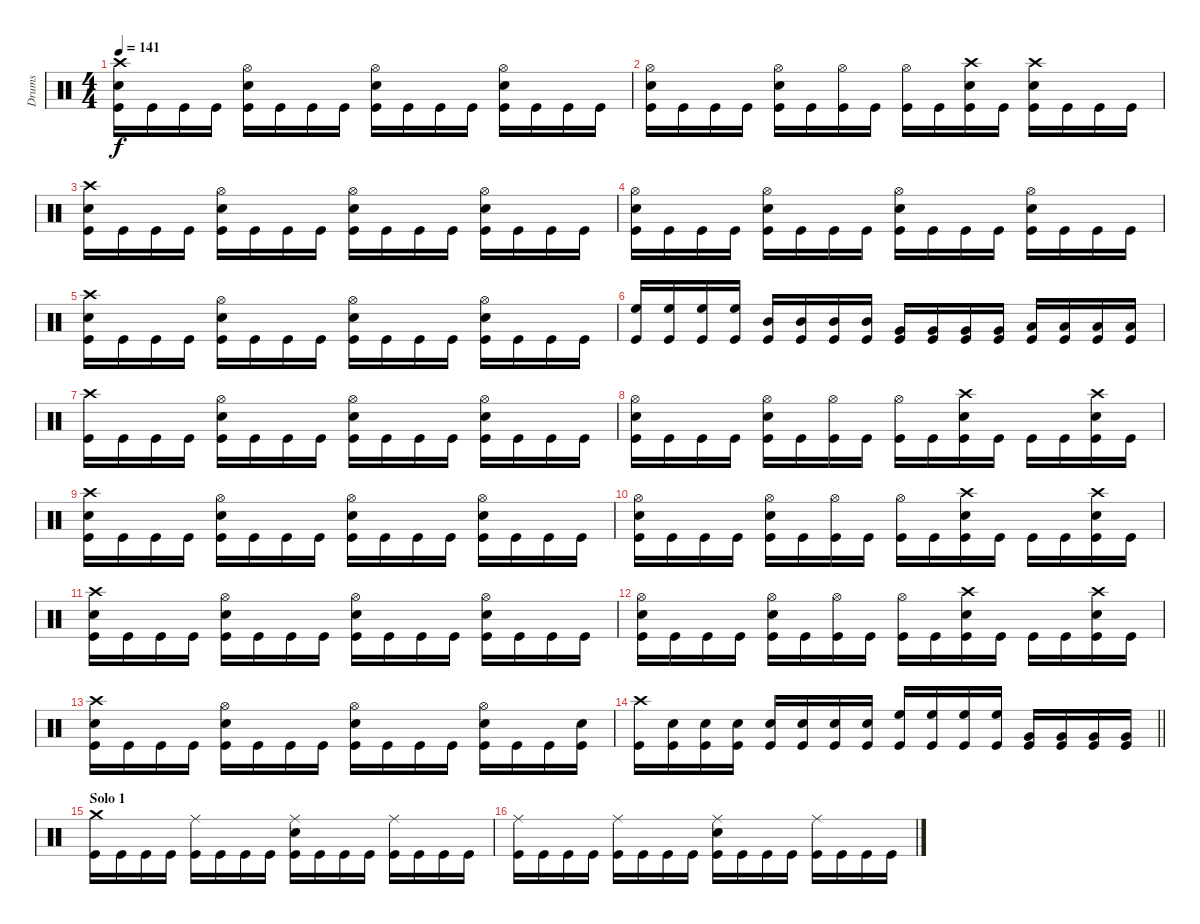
\track ("Drums" "Drums") {instrument percussion}
\staff {score}
\articulation defaults
\ts (4 4)
\tempo 141
\clef neutral
\ks c
("Kick (hit)" "Snare (hit) 2" "Crash high (hit)").16{dy f} "Kick (hit)".16 "Kick (hit)".16 "Kick (hit)".16 ("Kick (hit)" "Snare (hit) 2" "Hi-Hat (open)").16 "Kick (hit)".16 "Kick (hit)".16 "Kick (hit)".16 ("Kick (hit)" "Snare (hit) 2" "Hi-Hat (open)").16 "Kick (hit)".16 "Kick (hit)".16 "Kick (hit)".16 ("Kick (hit)" "Snare (hit) 2" "Hi-Hat (open)").16 "Kick (hit)".16 "Kick (hit)".16 "Kick (hit)".16 |
("Kick (hit)" "Snare (hit) 2" "Hi-Hat (open)").16 "Kick (hit)".16 "Kick (hit)".16 "Kick (hit)".16 ("Kick (hit)" "Snare (hit) 2" "Hi-Hat (open)").16 "Kick (hit)".16 ("Kick (hit)" "Hi-Hat (open)").16 "Kick (hit)".16 ("Kick (hit)" "Hi-Hat (open)").16 "Kick (hit)".16 ("Kick (hit)" "Snare (hit) 2" "Crash high (hit)").16 "Kick (hit)".16 ("Kick (hit)" "Snare (hit) 2" "Crash high (hit)").16 "Kick (hit)".16 "Kick (hit)".16 "Kick (hit)".16 |
("Kick (hit)" "Snare (hit) 2" "Crash high (hit)").16 "Kick (hit)".16 "Kick (hit)".16 "Kick (hit)".16 ("Kick (hit)" "Snare (hit) 2" "Hi-Hat (open)").16 "Kick (hit)".16 "Kick (hit)".16 "Kick (hit)".16 ("Kick (hit)" "Snare (hit) 2" "Hi-Hat (open)").16 "Kick (hit)".16 "Kick (hit)".16 "Kick (hit)".16 ("Kick (hit)" "Snare (hit) 2" "Hi-Hat (open)").16 "Kick (hit)".16 "Kick (hit)".16 "Kick (hit)".16 |
("Kick (hit)" "Snare (hit) 2" "Hi-Hat (open)").16 "Kick (hit)".16 "Kick (hit)".16 "Kick (hit)".16 ("Kick (hit)" "Snare (hit) 2" "Hi-Hat (open)").16 "Kick (hit)".16 "Kick (hit)".16 "Kick (hit)".16 ("Kick (hit)" "Snare (hit) 2" "Hi-Hat (open)").16 "Kick (hit)".16 "Kick (hit)".16 "Kick (hit)".16 ("Kick (hit)" "Snare (hit) 2" "Hi-Hat (open)").16 "Kick (hit)".16 "Kick (hit)".16 "Kick (hit)".16 |
("Kick (hit)" "Snare (hit) 2" "Crash high (hit)").16 "Kick (hit)".16 "Kick (hit)".16 "Kick (hit)".16 ("Kick (hit)" "Snare (hit) 2" "Hi-Hat (open)").16 "Kick (hit)".16 "Kick (hit)".16 "Kick (hit)".16 ("Kick (hit)" "Snare (hit) 2" "Hi-Hat (open)").16 "Kick (hit)".16 "Kick (hit)".16 "Kick (hit)".16 ("Kick (hit)" "Snare (hit) 2" "Hi-Hat (open)").16 "Kick (hit)".16 "Kick (hit)".16 "Kick (hit)".16 |
("Kick (hit)" "High Floor Tom (hit)").16 ("Kick (hit)" "High Floor Tom (hit)").16 ("Kick (hit)" "High Floor Tom (hit)").16 ("Kick (hit)" "High Floor Tom (hit)").16 ("Kick (hit)" "Mid Tom (hit)").16 ("Kick (hit)" "Mid Tom (hit)").16 ("Kick (hit)" "Mid Tom (hit)").16 ("Kick (hit)" "Mid Tom (hit)").16 ("Kick (hit)" "Very Low Tom (hit)").16 ("Kick (hit)" "Very Low Tom (hit)").16 ("Kick (hit)" "Very Low Tom (hit)").16 ("Kick (hit)" "Very Low Tom (hit)").16 ("Kick (hit)" "Low Floor Tom (hit)").16 ("Kick (hit)" "Low Floor Tom (hit)").16 ("Kick (hit)" "Low Floor Tom (hit)").16 ("Kick (hit)" "Low Floor Tom (hit)").16 |
("Kick (hit)" "Crash high (hit)").16 "Kick (hit)".16 "Kick (hit)".16 "Kick (hit)".16 ("Kick (hit)" "Snare (hit) 2" "Hi-Hat (open)").16 "Kick (hit)".16 "Kick (hit)".16 "Kick (hit)".16 ("Kick (hit)" "Snare (hit) 2" "Hi-Hat (open)").16 "Kick (hit)".16 "Kick (hit)".16 "Kick (hit)".16 ("Kick (hit)" "Snare (hit) 2" "Hi-Hat (open)").16 "Kick (hit)".16 "Kick (hit)".16 "Kick (hit)".16 |
("Kick (hit)" "Snare (hit) 2" "Hi-Hat (open)").16 "Kick (hit)".16 "Kick (hit)".16 "Kick (hit)".16 ("Kick (hit)" "Snare (hit) 2" "Hi-Hat (open)").16 "Kick (hit)".16 ("Kick (hit)" "Hi-Hat (open)").16 "Kick (hit)".16 ("Kick (hit)" "Hi-Hat (open)").16 "Kick (hit)".16 ("Kick (hit)" "Snare (hit) 2" "Crash high (hit)").16 "Kick (hit)".16 "Kick (hit)".16 "Kick (hit)".16 ("Kick (hit)" "Snare (hit) 2" "Crash high (hit)").16 "Kick (hit)".16 |
("Kick (hit)" "Crash high (hit)" "Snare (hit) 2").16 "Kick (hit)".16 "Kick (hit)".16 "Kick (hit)".16 ("Kick (hit)" "Snare (hit) 2" "Hi-Hat (open)").16 "Kick (hit)".16 "Kick (hit)".16 "Kick (hit)".16 ("Kick (hit)" "Snare (hit) 2" "Hi-Hat (open)").16 "Kick (hit)".16 "Kick (hit)".16 "Kick (hit)".16 ("Kick (hit)" "Snare (hit) 2" "Hi-Hat (open)").16 "Kick (hit)".16 "Kick (hit)".16 "Kick (hit)".16 |
("Kick (hit)" "Snare (hit) 2" "Hi-Hat (open)").16 "Kick (hit)".16 "Kick (hit)".16 "Kick (hit)".16 ("Kick (hit)" "Snare (hit) 2" "Hi-Hat (open)").16 "Kick (hit)".16 ("Kick (hit)" "Hi-Hat (open)").16 "Kick (hit)".16 ("Kick (hit)" "Hi-Hat (open)").16 "Kick (hit)".16 ("Kick (hit)" "Snare (hit) 2" "Crash high (hit)").16 "Kick (hit)".16 "Kick (hit)".16 "Kick (hit)".16 ("Kick (hit)" "Snare (hit) 2" "Crash high (hit)").16 "Kick (hit)".16 |
("Kick (hit)" "Crash high (hit)" "Snare (hit) 2").16 "Kick (hit)".16 "Kick (hit)".16 "Kick (hit)".16 ("Kick (hit)" "Snare (hit) 2" "Hi-Hat (open)").16 "Kick (hit)".16 "Kick (hit)".16 "Kick (hit)".16 ("Kick (hit)" "Snare (hit) 2" "Hi-Hat (open)").16 "Kick (hit)".16 "Kick (hit)".16 "Kick (hit)".16 ("Kick (hit)" "Snare (hit) 2" "Hi-Hat (open)").16 "Kick (hit)".16 "Kick (hit)".16 "Kick (hit)".16 |
("Kick (hit)" "Snare (hit) 2" "Hi-Hat (open)").16 "Kick (hit)".16 "Kick (hit)".16 "Kick (hit)".16 ("Kick (hit)" "Snare (hit) 2" "Hi-Hat (open)").16 "Kick (hit)".16 ("Kick (hit)" "Hi-Hat (open)").16 "Kick (hit)".16 ("Kick (hit)" "Hi-Hat (open)").16 "Kick (hit)".16 ("Kick (hit)" "Snare (hit) 2" "Crash high (hit)").16 "Kick (hit)".16 "Kick (hit)".16 "Kick (hit)".16 ("Kick (hit)" "Snare (hit) 2" "Crash high (hit)").16 "Kick (hit)".16 |
("Kick (hit)" "Crash high (hit)" "Snare (hit) 2").16 "Kick (hit)".16 "Kick (hit)".16 "Kick (hit)".16 ("Kick (hit)" "Snare (hit) 2" "Hi-Hat (open)").16 "Kick (hit)".16 "Kick (hit)".16 "Kick (hit)".16 ("Kick (hit)" "Snare (hit) 2" "Hi-Hat (open)").16 "Kick (hit)".16 "Kick (hit)".16 "Kick (hit)".16 ("Kick (hit)" "Snare (hit) 2" "Hi-Hat (open)").16 "Kick (hit)".16 "Kick (hit)".16 ("Kick (hit)" "Snare (hit) 2").16 |
\barLineRight lightlight
("Kick (hit)" "Crash high (hit)").16 ("Kick (hit)" "Snare (hit) 2").16 ("Kick (hit)" "Snare (hit) 2").16 ("Kick (hit)" "Snare (hit) 2").16 ("Kick (hit)" "Snare (hit) 2").16 ("Kick (hit)" "Snare (hit) 2").16 ("Kick (hit)" "Snare (hit) 2").16 ("Kick (hit)" "Snare (hit) 2").16 ("Kick (hit)" "High Floor Tom (hit)").16 ("Kick (hit)" "High Floor Tom (hit)").16 ("Kick (hit)" "High Floor Tom (hit)").16 ("Kick (hit)" "High Floor Tom (hit)").16 ("Kick (hit)" "Very Low Tom (hit)").16 ("Kick (hit)" "Very Low Tom (hit)").16 ("Kick (hit)" "Very Low Tom (hit)").16 ("Kick (hit)" "Very Low Tom (hit)").16 |
\section ("" "Solo 1")
("Kick (hit)" "Crash medium (hit)").16 "Kick (hit)".16 "Kick (hit)".16 "Kick (hit)".16 ("Kick (hit)" "Ride (middle)").16 "Kick (hit)".16 "Kick (hit)".16 "Kick (hit)".16 ("Kick (hit)" "Snare (hit) 2" "Ride (middle)").16 "Kick (hit)".16 "Kick (hit)".16 "Kick (hit)".16 ("Kick (hit)" "Ride (middle)").16 "Kick (hit)".16 "Kick (hit)".16 "Kick (hit)".16 |
("Kick (hit)" "Ride (middle)").16 "Kick (hit)".16 "Kick (hit)".16 "Kick (hit)".16 ("Kick (hit)" "Ride (middle)").16 "Kick (hit)".16 "Kick (hit)".16 "Kick (hit)".16 ("Kick (hit)" "Snare (hit) 2" "Ride (middle)").16 "Kick (hit)".16 "Kick (hit)".16 "Kick (hit)".16 ("Kick (hit)" "Ride (middle)").16 "Kick (hit)".16 "Kick (hit)".16 "Kick (hit)".16
